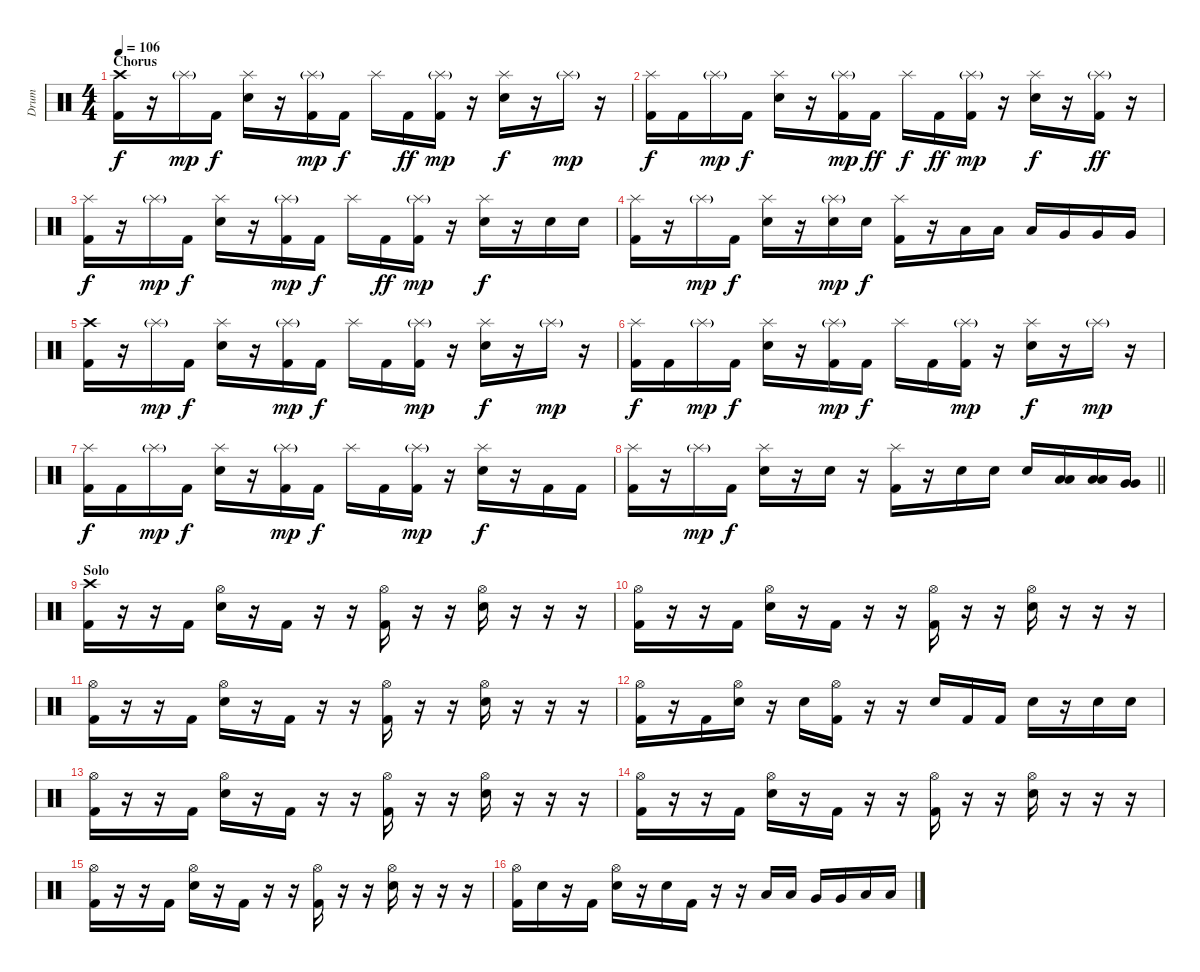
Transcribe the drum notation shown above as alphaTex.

\track ("Drum" "Drum") {instrument percussion}
\staff {score}
\articulation defaults
\ts (4 4)
\section ("" "Chorus")
\tempo 106
\clef neutral
\ks c
("Crash high (hit)" "Kick (hit) 2").16{dy f} r.16 "Splash (hit)"{g}.16{dy mp} "Kick (hit) 2".16{dy f} ("Splash (hit)" "Electric Snare (hit)").16 r.16 ("Splash (hit)"{g} "Kick (hit) 2").16{dy mp} "Kick (hit) 2".16{dy f} "Splash (hit)".16 "Kick (hit) 2".16{dy ff} ("Splash (hit)"{g} "Kick (hit) 2").16{dy mp} r.16 ("Splash (hit)" "Electric Snare (hit)").16{dy f} r.16 "Splash (hit)"{g}.16{dy mp} r.16 |
("Splash (hit)" "Kick (hit) 2").16{dy f} "Kick (hit) 2".16 "Splash (hit)"{g}.16{dy mp} "Kick (hit) 2".16{dy f} ("Splash (hit)" "Electric Snare (hit)").16 r.16 ("Splash (hit)"{g} "Kick (hit) 2").16{dy mp} "Kick (hit) 2".16{dy ff} "Splash (hit)".16{dy f} "Kick (hit) 2".16{dy ff} ("Splash (hit)"{g} "Kick (hit) 2").16{dy mp} r.16 ("Splash (hit)" "Electric Snare (hit)").16{dy f} r.16 ("Splash (hit)"{g} "Kick (hit) 2").16{dy ff} r.16 |
("Splash (hit)" "Kick (hit) 2").16{dy f} r.16 "Splash (hit)"{g}.16{dy mp} "Kick (hit) 2".16{dy f} ("Splash (hit)" "Electric Snare (hit)").16 r.16 ("Splash (hit)"{g} "Kick (hit) 2").16{dy mp} "Kick (hit) 2".16{dy f} "Splash (hit)".16 "Kick (hit) 2".16{dy ff} ("Splash (hit)"{g} "Kick (hit) 2").16{dy mp} r.16 ("Splash (hit)" "Electric Snare (hit)").16{dy f} r.16 "Electric Snare (hit)".16 "Electric Snare (hit)".16 |
("Splash (hit)" "Kick (hit) 2").16 r.16 "Splash (hit)"{g}.16{dy mp} "Kick (hit) 2".16{dy f} ("Splash (hit)" "Electric Snare (hit)").16 r.16 ("Splash (hit)"{g} "Electric Snare (hit)").16{dy mp} "Electric Snare (hit)".16{dy f} ("Splash (hit)" "Kick (hit) 2").16 r.16 "Low Tom (hit)".16 "Low Tom (hit)".16 "Low Tom (hit)".16 "Very Low Tom (hit)".16 "Very Low Tom (hit)".16 "Very Low Tom (hit)".16 |
("Crash high (hit)" "Kick (hit) 2").16 r.16 "Splash (hit)"{g}.16{dy mp} "Kick (hit) 2".16{dy f} ("Splash (hit)" "Electric Snare (hit)").16 r.16 ("Splash (hit)"{g} "Kick (hit) 2").16{dy mp} "Kick (hit) 2".16{dy f} "Splash (hit)".16 "Kick (hit) 2".16 ("Splash (hit)"{g} "Kick (hit) 2").16{dy mp} r.16 ("Splash (hit)" "Electric Snare (hit)").16{dy f} r.16 "Splash (hit)"{g}.16{dy mp} r.16 |
("Splash (hit)" "Kick (hit) 2").16{dy f} "Kick (hit) 2".16 "Splash (hit)"{g}.16{dy mp} "Kick (hit) 2".16{dy f} ("Splash (hit)" "Electric Snare (hit)").16 r.16 ("Splash (hit)"{g} "Kick (hit) 2").16{dy mp} "Kick (hit) 2".16{dy f} "Splash (hit)".16 "Kick (hit) 2".16 ("Splash (hit)"{g} "Kick (hit) 2").16{dy mp} r.16 ("Splash (hit)" "Electric Snare (hit)").16{dy f} r.16 "Splash (hit)"{g}.16{dy mp} r.16 |
("Splash (hit)" "Kick (hit) 2").16{dy f} "Kick (hit) 2".16 "Splash (hit)"{g}.16{dy mp} "Kick (hit) 2".16{dy f} ("Splash (hit)" "Electric Snare (hit)").16 r.16 ("Splash (hit)"{g} "Kick (hit) 2").16{dy mp} "Kick (hit) 2".16{dy f} "Splash (hit)".16 "Kick (hit) 2".16 ("Splash (hit)"{g} "Kick (hit) 2").16{dy mp} r.16 ("Splash (hit)" "Electric Snare (hit)").16{dy f} r.16 "Kick (hit) 2".16 "Kick (hit) 2".16 |
\barLineRight lightlight
("Splash (hit)" "Kick (hit) 2").16 r.16 "Splash (hit)"{g}.16{dy mp} "Kick (hit) 2".16{dy f} ("Splash (hit)" "Electric Snare (hit)").16 r.16 "Electric Snare (hit)".16 r.16 ("Splash (hit)" "Kick (hit) 2").16 r.16 "Electric Snare (hit)".16 "Electric Snare (hit)".16 "Electric Snare (hit)".16 ("Low Tom (hit)" "Low Tom (hit)").16 ("Low Tom (hit)" "Low Tom (hit)").16 ("Very Low Tom (hit)" "Very Low Tom (hit)").16 |
\section ("" "Solo")
("Crash high (hit)" "Kick (hit) 2").16 r.16 r.16 "Kick (hit) 2".16 ("Hi-Hat (open)" "Electric Snare (hit)").16 r.16 "Kick (hit) 2".16 r.16 r.16 ("Hi-Hat (open)" "Kick (hit) 2").16 r.16 r.16 ("Hi-Hat (open)" "Electric Snare (hit)").16 r.16 r.16 r.16 |
("Hi-Hat (open)" "Kick (hit) 2").16 r.16 r.16 "Kick (hit) 2".16 ("Hi-Hat (open)" "Electric Snare (hit)").16 r.16 "Kick (hit) 2".16 r.16 r.16 ("Hi-Hat (open)" "Kick (hit) 2").16 r.16 r.16 ("Hi-Hat (open)" "Electric Snare (hit)").16 r.16 r.16 r.16 |
("Hi-Hat (open)" "Kick (hit) 2").16 r.16 r.16 "Kick (hit) 2".16 ("Hi-Hat (open)" "Electric Snare (hit)").16 r.16 "Kick (hit) 2".16 r.16 r.16 ("Hi-Hat (open)" "Kick (hit) 2").16 r.16 r.16 ("Hi-Hat (open)" "Electric Snare (hit)").16 r.16 r.16 r.16 |
("Hi-Hat (open)" "Kick (hit) 2").16 r.16 "Kick (hit) 2".16 ("Hi-Hat (open)" "Electric Snare (hit)").16 r.16 "Electric Snare (hit)".16 ("Hi-Hat (open)" "Kick (hit) 2").16 r.16 r.16 "Electric Snare (hit)".16 "Kick (hit) 2".16 "Kick (hit) 2".16 "Electric Snare (hit)".16 r.16 "Electric Snare (hit)".16 "Electric Snare (hit)".16 |
("Hi-Hat (open)" "Kick (hit) 2").16 r.16 r.16 "Kick (hit) 2".16 ("Hi-Hat (open)" "Electric Snare (hit)").16 r.16 "Kick (hit) 2".16 r.16 r.16 ("Hi-Hat (open)" "Kick (hit) 2").16 r.16 r.16 ("Hi-Hat (open)" "Electric Snare (hit)").16 r.16 r.16 r.16 |
("Hi-Hat (open)" "Kick (hit) 2").16 r.16 r.16 "Kick (hit) 2".16 ("Hi-Hat (open)" "Electric Snare (hit)").16 r.16 "Kick (hit) 2".16 r.16 r.16 ("Hi-Hat (open)" "Kick (hit) 2").16 r.16 r.16 ("Hi-Hat (open)" "Electric Snare (hit)").16 r.16 r.16 r.16 |
("Hi-Hat (open)" "Kick (hit) 2").16 r.16 r.16 "Kick (hit) 2".16 ("Hi-Hat (open)" "Electric Snare (hit)").16 r.16 "Kick (hit) 2".16 r.16 r.16 ("Hi-Hat (open)" "Kick (hit) 2").16 r.16 r.16 ("Hi-Hat (open)" "Electric Snare (hit)").16 r.16 r.16 r.16 |
("Hi-Hat (open)" "Kick (hit) 2").16 "Electric Snare (hit)".16 r.16 "Kick (hit) 2".16 ("Hi-Hat (open)" "Electric Snare (hit)").16 r.16 "Electric Snare (hit)".16 "Kick (hit) 2".16 r.16 r.16 "Low Tom (hit)".16 "Low Tom (hit)".16 "Very Low Tom (hit)".16 "Very Low Tom (hit)".16 "Low Floor Tom (hit)".16 "Low Floor Tom (hit)".16
